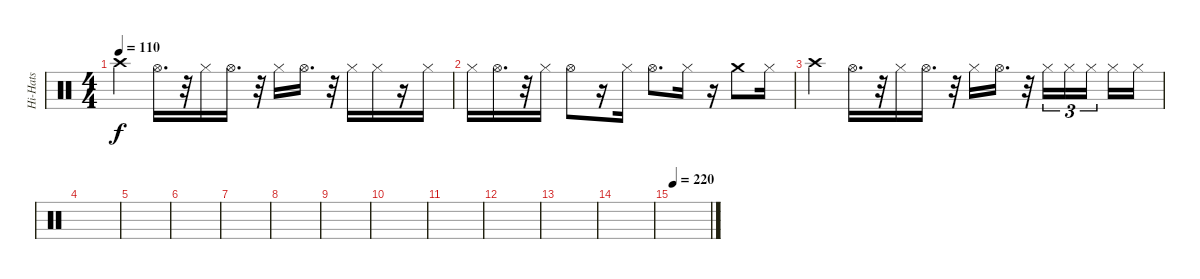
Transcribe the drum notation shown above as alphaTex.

\track ("Hi-Hats" "Hi-Hats") {instrument percussion}
\staff {score}
\articulation defaults
\ts (4 4)
\tempo 110
\clef neutral
\ks c "Crash high (hit)".4{dy f} "Hi-Hat (open)".16{d}
r.32{volume 0} "Hi-Hat (closed)".16{volume 12} "Hi-Hat (open)".16{d} r.32{volume 0} "Hi-Hat (closed)".16{volume 12} "Hi-Hat (open)".16{d} r.32{volume 0} "Hi-Hat (closed)".16{volume 12} "Hi-Hat (closed)".16 r.16 "Hi-Hat (closed)".16 |
"Hi-Hat (closed)".16{volume 12} "Hi-Hat (open)".16{d} r.32{volume 0} "Hi-Hat (closed)".16{volume 12} "Hi-Hat (open)".8 r.16{volume 0} "Hi-Hat (closed)".16{volume 12} "Hi-Hat (open)".8{d} "Hi-Hat (closed)".16 r.16 "Crash medium (hit)".8 "Hi-Hat (closed)".16 |
"Crash high (hit)".4 "Hi-Hat (open)".16{d} r.32{volume 0} "Hi-Hat (closed)".16{volume 12} "Hi-Hat (open)".16{d} r.32{volume 0} "Hi-Hat (closed)".16{volume 12} "Hi-Hat (open)".16{d} r.32{volume 0} "Hi-Hat (closed)".16{tu (3 2) volume 12} "Hi-Hat (closed)".16{tu (3 2)} "Hi-Hat (closed)".16{tu (3 2) beam splitsecondary} "Hi-Hat (closed)".16 "Hi-Hat (closed)".16 |
|
|
|
|
|
|
|
|
|
|
|
\tempo 220
